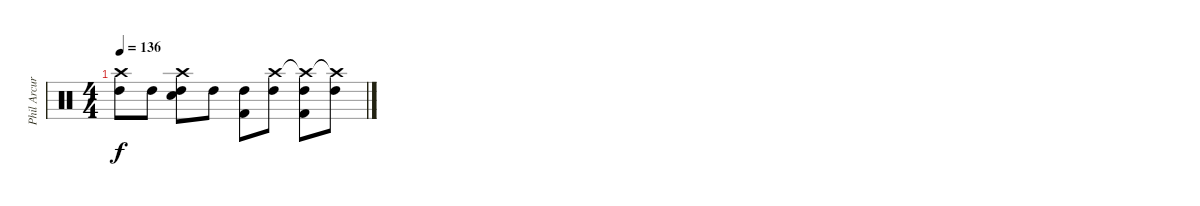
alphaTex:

\track ("Phil Arcuri drums" "Phil Arcur") {instrument percussion}
\staff {score}
\articulation defaults
\ts (4 4)
\tempo 136
\clef neutral
\ks c
("Crash high (hit)" "High Tom (hit)").8{dy f} "High Tom (hit)".8 ("Crash high (hit)" "Snare (hit) 2" "High Tom (hit)").8 "High Tom (hit)".8 ("Kick (hit) 2" "High Tom (hit)").8 ("Crash high (hit)" "High Tom (hit)").8 ("Crash high (hit)"{t} "Kick (hit) 2" "High Tom (hit)").8 ("Crash high (hit)"{t} "High Tom (hit)").8
